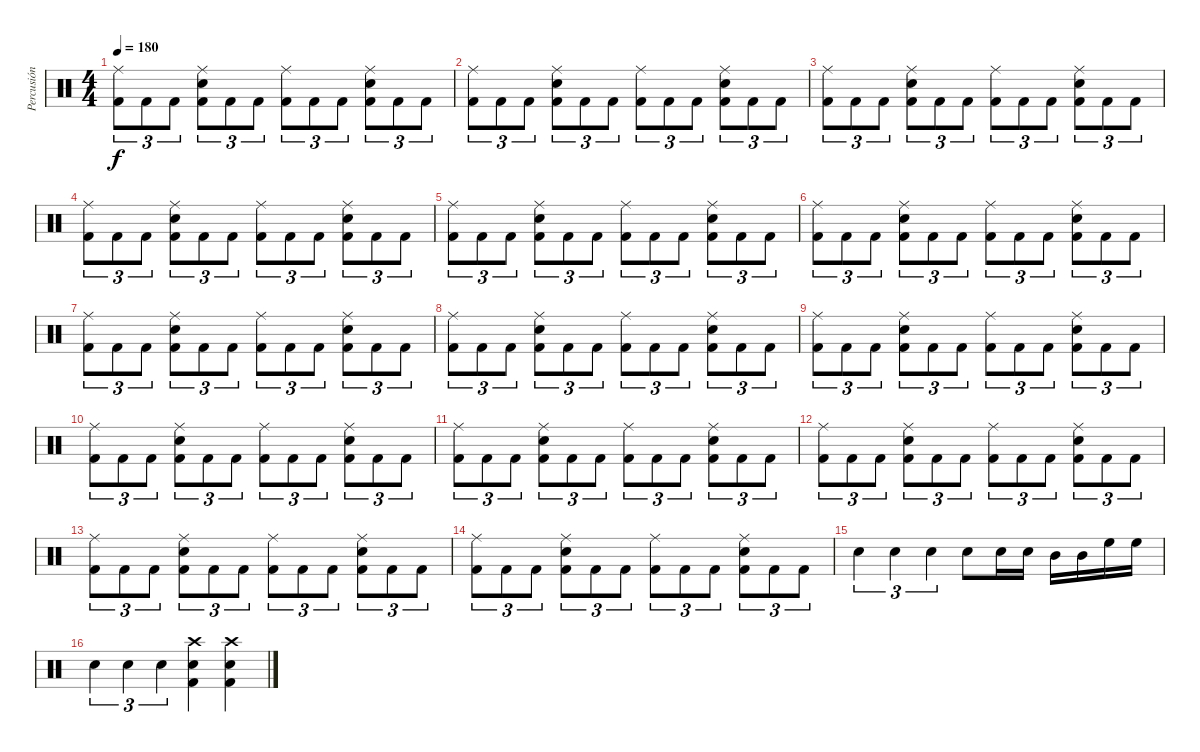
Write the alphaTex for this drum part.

\track ("Percusión" "Percusión") {instrument percussion}
\staff {score}
\articulation defaults
\ts (4 4)
\tempo 180
\clef neutral
\ks c
("Ride (middle)" "Kick (hit) 2").8{tu (3 2) dy f} "Kick (hit) 2".8{tu (3 2)} "Kick (hit) 2".8{tu (3 2)} ("Ride (middle)" "Snare (hit) 2" "Kick (hit) 2").8{tu (3 2)} "Kick (hit) 2".8{tu (3 2)} "Kick (hit) 2".8{tu (3 2)} ("Ride (middle)" "Kick (hit) 2").8{tu (3 2)} "Kick (hit) 2".8{tu (3 2)} "Kick (hit) 2".8{tu (3 2)} ("Ride (middle)" "Snare (hit) 2" "Kick (hit) 2").8{tu (3 2)} "Kick (hit) 2".8{tu (3 2)} "Kick (hit) 2".8{tu (3 2)} |
("Ride (middle)" "Kick (hit) 2").8{tu (3 2)} "Kick (hit) 2".8{tu (3 2)} "Kick (hit) 2".8{tu (3 2)} ("Ride (middle)" "Snare (hit) 2" "Kick (hit) 2").8{tu (3 2)} "Kick (hit) 2".8{tu (3 2)} "Kick (hit) 2".8{tu (3 2)} ("Ride (middle)" "Kick (hit) 2").8{tu (3 2)} "Kick (hit) 2".8{tu (3 2)} "Kick (hit) 2".8{tu (3 2)} ("Ride (middle)" "Snare (hit) 2" "Kick (hit) 2").8{tu (3 2)} "Kick (hit) 2".8{tu (3 2)} "Kick (hit) 2".8{tu (3 2)} |
("Ride (middle)" "Kick (hit) 2").8{tu (3 2)} "Kick (hit) 2".8{tu (3 2)} "Kick (hit) 2".8{tu (3 2)} ("Ride (middle)" "Snare (hit) 2" "Kick (hit) 2").8{tu (3 2)} "Kick (hit) 2".8{tu (3 2)} "Kick (hit) 2".8{tu (3 2)} ("Ride (middle)" "Kick (hit) 2").8{tu (3 2)} "Kick (hit) 2".8{tu (3 2)} "Kick (hit) 2".8{tu (3 2)} ("Ride (middle)" "Snare (hit) 2" "Kick (hit) 2").8{tu (3 2)} "Kick (hit) 2".8{tu (3 2)} "Kick (hit) 2".8{tu (3 2)} |
("Ride (middle)" "Kick (hit) 2").8{tu (3 2)} "Kick (hit) 2".8{tu (3 2)} "Kick (hit) 2".8{tu (3 2)} ("Ride (middle)" "Snare (hit) 2" "Kick (hit) 2").8{tu (3 2)} "Kick (hit) 2".8{tu (3 2)} "Kick (hit) 2".8{tu (3 2)} ("Ride (middle)" "Kick (hit) 2").8{tu (3 2)} "Kick (hit) 2".8{tu (3 2)} "Kick (hit) 2".8{tu (3 2)} ("Ride (middle)" "Snare (hit) 2" "Kick (hit) 2").8{tu (3 2)} "Kick (hit) 2".8{tu (3 2)} "Kick (hit) 2".8{tu (3 2)} |
("Ride (middle)" "Kick (hit) 2").8{tu (3 2)} "Kick (hit) 2".8{tu (3 2)} "Kick (hit) 2".8{tu (3 2)} ("Ride (middle)" "Snare (hit) 2" "Kick (hit) 2").8{tu (3 2)} "Kick (hit) 2".8{tu (3 2)} "Kick (hit) 2".8{tu (3 2)} ("Ride (middle)" "Kick (hit) 2").8{tu (3 2)} "Kick (hit) 2".8{tu (3 2)} "Kick (hit) 2".8{tu (3 2)} ("Ride (middle)" "Snare (hit) 2" "Kick (hit) 2").8{tu (3 2)} "Kick (hit) 2".8{tu (3 2)} "Kick (hit) 2".8{tu (3 2)} |
("Ride (middle)" "Kick (hit) 2").8{tu (3 2)} "Kick (hit) 2".8{tu (3 2)} "Kick (hit) 2".8{tu (3 2)} ("Ride (middle)" "Snare (hit) 2" "Kick (hit) 2").8{tu (3 2)} "Kick (hit) 2".8{tu (3 2)} "Kick (hit) 2".8{tu (3 2)} ("Ride (middle)" "Kick (hit) 2").8{tu (3 2)} "Kick (hit) 2".8{tu (3 2)} "Kick (hit) 2".8{tu (3 2)} ("Ride (middle)" "Snare (hit) 2" "Kick (hit) 2").8{tu (3 2)} "Kick (hit) 2".8{tu (3 2)} "Kick (hit) 2".8{tu (3 2)} |
("Ride (middle)" "Kick (hit) 2").8{tu (3 2)} "Kick (hit) 2".8{tu (3 2)} "Kick (hit) 2".8{tu (3 2)} ("Ride (middle)" "Snare (hit) 2" "Kick (hit) 2").8{tu (3 2)} "Kick (hit) 2".8{tu (3 2)} "Kick (hit) 2".8{tu (3 2)} ("Ride (middle)" "Kick (hit) 2").8{tu (3 2)} "Kick (hit) 2".8{tu (3 2)} "Kick (hit) 2".8{tu (3 2)} ("Ride (middle)" "Snare (hit) 2" "Kick (hit) 2").8{tu (3 2)} "Kick (hit) 2".8{tu (3 2)} "Kick (hit) 2".8{tu (3 2)} |
("Ride (middle)" "Kick (hit) 2").8{tu (3 2)} "Kick (hit) 2".8{tu (3 2)} "Kick (hit) 2".8{tu (3 2)} ("Ride (middle)" "Snare (hit) 2" "Kick (hit) 2").8{tu (3 2)} "Kick (hit) 2".8{tu (3 2)} "Kick (hit) 2".8{tu (3 2)} ("Ride (middle)" "Kick (hit) 2").8{tu (3 2)} "Kick (hit) 2".8{tu (3 2)} "Kick (hit) 2".8{tu (3 2)} ("Ride (middle)" "Snare (hit) 2" "Kick (hit) 2").8{tu (3 2)} "Kick (hit) 2".8{tu (3 2)} "Kick (hit) 2".8{tu (3 2)} |
("Ride (middle)" "Kick (hit) 2").8{tu (3 2)} "Kick (hit) 2".8{tu (3 2)} "Kick (hit) 2".8{tu (3 2)} ("Ride (middle)" "Snare (hit) 2" "Kick (hit) 2").8{tu (3 2)} "Kick (hit) 2".8{tu (3 2)} "Kick (hit) 2".8{tu (3 2)} ("Ride (middle)" "Kick (hit) 2").8{tu (3 2)} "Kick (hit) 2".8{tu (3 2)} "Kick (hit) 2".8{tu (3 2)} ("Ride (middle)" "Snare (hit) 2" "Kick (hit) 2").8{tu (3 2)} "Kick (hit) 2".8{tu (3 2)} "Kick (hit) 2".8{tu (3 2)} |
("Ride (middle)" "Kick (hit) 2").8{tu (3 2)} "Kick (hit) 2".8{tu (3 2)} "Kick (hit) 2".8{tu (3 2)} ("Ride (middle)" "Snare (hit) 2" "Kick (hit) 2").8{tu (3 2)} "Kick (hit) 2".8{tu (3 2)} "Kick (hit) 2".8{tu (3 2)} ("Ride (middle)" "Kick (hit) 2").8{tu (3 2)} "Kick (hit) 2".8{tu (3 2)} "Kick (hit) 2".8{tu (3 2)} ("Ride (middle)" "Snare (hit) 2" "Kick (hit) 2").8{tu (3 2)} "Kick (hit) 2".8{tu (3 2)} "Kick (hit) 2".8{tu (3 2)} |
("Ride (middle)" "Kick (hit) 2").8{tu (3 2)} "Kick (hit) 2".8{tu (3 2)} "Kick (hit) 2".8{tu (3 2)} ("Ride (middle)" "Snare (hit) 2" "Kick (hit) 2").8{tu (3 2)} "Kick (hit) 2".8{tu (3 2)} "Kick (hit) 2".8{tu (3 2)} ("Ride (middle)" "Kick (hit) 2").8{tu (3 2)} "Kick (hit) 2".8{tu (3 2)} "Kick (hit) 2".8{tu (3 2)} ("Ride (middle)" "Snare (hit) 2" "Kick (hit) 2").8{tu (3 2)} "Kick (hit) 2".8{tu (3 2)} "Kick (hit) 2".8{tu (3 2)} |
("Ride (middle)" "Kick (hit) 2").8{tu (3 2)} "Kick (hit) 2".8{tu (3 2)} "Kick (hit) 2".8{tu (3 2)} ("Ride (middle)" "Snare (hit) 2" "Kick (hit) 2").8{tu (3 2)} "Kick (hit) 2".8{tu (3 2)} "Kick (hit) 2".8{tu (3 2)} ("Ride (middle)" "Kick (hit) 2").8{tu (3 2)} "Kick (hit) 2".8{tu (3 2)} "Kick (hit) 2".8{tu (3 2)} ("Ride (middle)" "Snare (hit) 2" "Kick (hit) 2").8{tu (3 2)} "Kick (hit) 2".8{tu (3 2)} "Kick (hit) 2".8{tu (3 2)} |
("Ride (middle)" "Kick (hit) 2").8{tu (3 2)} "Kick (hit) 2".8{tu (3 2)} "Kick (hit) 2".8{tu (3 2)} ("Ride (middle)" "Snare (hit) 2" "Kick (hit) 2").8{tu (3 2)} "Kick (hit) 2".8{tu (3 2)} "Kick (hit) 2".8{tu (3 2)} ("Ride (middle)" "Kick (hit) 2").8{tu (3 2)} "Kick (hit) 2".8{tu (3 2)} "Kick (hit) 2".8{tu (3 2)} ("Ride (middle)" "Snare (hit) 2" "Kick (hit) 2").8{tu (3 2)} "Kick (hit) 2".8{tu (3 2)} "Kick (hit) 2".8{tu (3 2)} |
("Ride (middle)" "Kick (hit) 2").8{tu (3 2)} "Kick (hit) 2".8{tu (3 2)} "Kick (hit) 2".8{tu (3 2)} ("Ride (middle)" "Snare (hit) 2" "Kick (hit) 2").8{tu (3 2)} "Kick (hit) 2".8{tu (3 2)} "Kick (hit) 2".8{tu (3 2)} ("Ride (middle)" "Kick (hit) 2").8{tu (3 2)} "Kick (hit) 2".8{tu (3 2)} "Kick (hit) 2".8{tu (3 2)} ("Ride (middle)" "Snare (hit) 2" "Kick (hit) 2").8{tu (3 2)} "Kick (hit) 2".8{tu (3 2)} "Kick (hit) 2".8{tu (3 2)} |
"Snare (hit) 2".4{tu (3 2)} "Snare (hit) 2".4{tu (3 2)} "Snare (hit) 2".4{tu (3 2)} "Snare (hit) 2".8 "Snare (hit) 2".16 "Snare (hit) 2".16 "Mid Tom (hit)".16 "Mid Tom (hit)".16 "High Floor Tom (hit)".16 "High Floor Tom (hit)".16 |
"Snare (hit) 2".4{tu (3 2)} "Snare (hit) 2".4{tu (3 2)} "Snare (hit) 2".4{tu (3 2)} ("Snare (hit) 2" "Crash high (hit)" "Kick (hit) 2").4 ("Snare (hit) 2" "Crash high (hit)" "Kick (hit) 2").4
